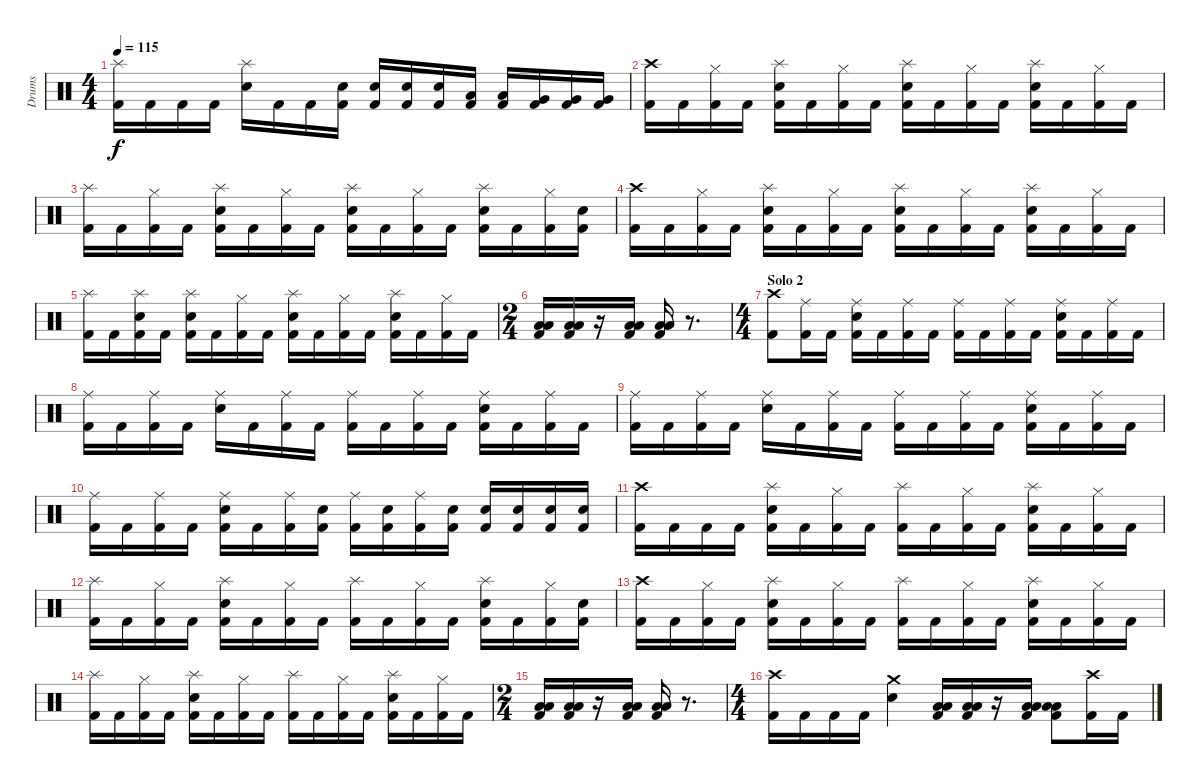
\track ("Drums" "Drums") {instrument percussion}
\staff {score}
\articulation defaults
\ts (4 4)
\tempo 115
\clef neutral
\ks c
("Splash (hit)" "Kick (hit) 2").16{dy f} "Kick (hit) 2".16 "Kick (hit) 2".16 "Kick (hit) 2".16 ("Splash (hit)" "Snare (hit) 2").16 "Kick (hit) 2".16 "Kick (hit) 2".16 ("Snare (hit) 2" "Kick (hit) 2").16 ("Snare (hit) 2" "Kick (hit) 2").16 ("Snare (hit) 2" "Kick (hit) 2").16 ("Snare (hit) 2" "Kick (hit) 2").16 ("Low Tom (hit)" "Kick (hit) 2").16 ("Low Tom (hit)" "Kick (hit) 2").16 ("Very Low Tom (hit)" "Kick (hit) 2").16 ("Very Low Tom (hit)" "Kick (hit) 2").16 ("Very Low Tom (hit)" "Kick (hit) 2").16 |
("Crash high (hit)" "Kick (hit) 2").16 "Kick (hit) 2".16 ("Hi-Hat (closed)" "Kick (hit) 2").16 "Kick (hit) 2".16 ("Splash (hit)" "Snare (hit) 2" "Kick (hit) 2").16 "Kick (hit) 2".16 ("Hi-Hat (closed)" "Kick (hit) 2").16 "Kick (hit) 2".16 ("Splash (hit)" "Snare (hit) 2" "Kick (hit) 2").16 "Kick (hit) 2".16 ("Hi-Hat (closed)" "Kick (hit) 2").16 "Kick (hit) 2".16 ("Splash (hit)" "Snare (hit) 2" "Kick (hit) 2").16 "Kick (hit) 2".16 ("Hi-Hat (closed)" "Kick (hit) 2").16 "Kick (hit) 2".16 |
("Splash (hit)" "Kick (hit) 2").16 "Kick (hit) 2".16 ("Hi-Hat (closed)" "Kick (hit) 2").16 "Kick (hit) 2".16 ("Splash (hit)" "Snare (hit) 2" "Kick (hit) 2").16 "Kick (hit) 2".16 ("Hi-Hat (closed)" "Kick (hit) 2").16 "Kick (hit) 2".16 ("Splash (hit)" "Snare (hit) 2" "Kick (hit) 2").16 "Kick (hit) 2".16 ("Hi-Hat (closed)" "Kick (hit) 2").16 "Kick (hit) 2".16 ("Splash (hit)" "Snare (hit) 2" "Kick (hit) 2").16 "Kick (hit) 2".16 ("Hi-Hat (closed)" "Kick (hit) 2").16 ("Snare (hit) 2" "Kick (hit) 2").16 |
("Crash high (hit)" "Kick (hit) 2").16 "Kick (hit) 2".16 ("Hi-Hat (closed)" "Kick (hit) 2").16 "Kick (hit) 2".16 ("Splash (hit)" "Snare (hit) 2" "Kick (hit) 2").16 "Kick (hit) 2".16 ("Hi-Hat (closed)" "Kick (hit) 2").16 "Kick (hit) 2".16 ("Splash (hit)" "Snare (hit) 2" "Kick (hit) 2").16 "Kick (hit) 2".16 ("Hi-Hat (closed)" "Kick (hit) 2").16 "Kick (hit) 2".16 ("Splash (hit)" "Snare (hit) 2" "Kick (hit) 2").16 "Kick (hit) 2".16 ("Hi-Hat (closed)" "Kick (hit) 2").16 "Kick (hit) 2".16 |
("Splash (hit)" "Kick (hit) 2").16 "Kick (hit) 2".16 ("Splash (hit)" "Snare (hit) 2" "Kick (hit) 2").16 "Kick (hit) 2".16 ("Splash (hit)" "Snare (hit) 2" "Kick (hit) 2").16 "Kick (hit) 2".16 ("Hi-Hat (closed)" "Kick (hit) 2").16 "Kick (hit) 2".16 ("Splash (hit)" "Snare (hit) 2" "Kick (hit) 2").16 "Kick (hit) 2".16 ("Hi-Hat (closed)" "Kick (hit) 2").16 "Kick (hit) 2".16 ("Splash (hit)" "Snare (hit) 2" "Kick (hit) 2").16 "Kick (hit) 2".16 ("Hi-Hat (closed)" "Kick (hit) 2").16 "Kick (hit) 2".16 |
\ts (2 4)
("Low Tom (hit)" "Low Floor Tom (hit)" "Kick (hit) 2").16 ("Low Tom (hit)" "Low Floor Tom (hit)" "Kick (hit) 2").16 r.16 ("Low Tom (hit)" "Low Floor Tom (hit)" "Kick (hit) 2").16 ("Low Tom (hit)" "Low Floor Tom (hit)" "Kick (hit) 2").16 r.8{d} |
\ts (4 4)
\section ("" "Solo 2")
("Crash high (hit)" "Kick (hit) 2").8 ("Ride (middle)" "Kick (hit) 2").16 "Kick (hit) 2".16 ("Ride (middle)" "Snare (hit) 2" "Kick (hit) 2").16 "Kick (hit) 2".16 ("Ride (middle)" "Kick (hit) 2").16 "Kick (hit) 2".16 ("Ride (middle)" "Kick (hit) 2").16 "Kick (hit) 2".16 ("Ride (middle)" "Kick (hit) 2").16 "Kick (hit) 2".16 ("Ride (middle)" "Snare (hit) 2" "Kick (hit) 2").16 "Kick (hit) 2".16 ("Ride (middle)" "Kick (hit) 2").16 "Kick (hit) 2".16 |
("Ride (middle)" "Kick (hit) 2").16 "Kick (hit) 2".16 ("Ride (middle)" "Kick (hit) 2").16 "Kick (hit) 2".16 ("Ride (middle)" "Snare (hit) 2").16 "Kick (hit) 2".16 ("Ride (middle)" "Kick (hit) 2").16 "Kick (hit) 2".16 ("Ride (middle)" "Kick (hit) 2").16 "Kick (hit) 2".16 ("Ride (middle)" "Kick (hit) 2").16 "Kick (hit) 2".16 ("Ride (middle)" "Snare (hit) 2" "Kick (hit) 2").16 "Kick (hit) 2".16 ("Ride (middle)" "Kick (hit) 2").16 "Kick (hit) 2".16 |
("Ride (middle)" "Kick (hit) 2").16 "Kick (hit) 2".16 ("Ride (middle)" "Kick (hit) 2").16 "Kick (hit) 2".16 ("Ride (middle)" "Snare (hit) 2").16 "Kick (hit) 2".16 ("Ride (middle)" "Kick (hit) 2").16 "Kick (hit) 2".16 ("Ride (middle)" "Kick (hit) 2").16 "Kick (hit) 2".16 ("Ride (middle)" "Kick (hit) 2").16 "Kick (hit) 2".16 ("Ride (middle)" "Snare (hit) 2" "Kick (hit) 2").16 "Kick (hit) 2".16 ("Ride (middle)" "Kick (hit) 2").16 "Kick (hit) 2".16 |
("Ride (middle)" "Kick (hit) 2").16 "Kick (hit) 2".16 ("Ride (middle)" "Kick (hit) 2").16 "Kick (hit) 2".16 ("Ride (middle)" "Snare (hit) 2" "Kick (hit) 2").16 "Kick (hit) 2".16 ("Ride (middle)" "Kick (hit) 2").16 ("Snare (hit) 2" "Kick (hit) 2").16 ("Ride (middle)" "Kick (hit) 2").16 ("Snare (hit) 2" "Kick (hit) 2").16 ("Ride (middle)" "Kick (hit) 2").16 ("Snare (hit) 2" "Kick (hit) 2").16 ("Snare (hit) 2" "Kick (hit) 2").16 ("Snare (hit) 2" "Kick (hit) 2").16 ("Snare (hit) 2" "Kick (hit) 2").16 ("Snare (hit) 2" "Kick (hit) 2").16 |
("Crash high (hit)" "Kick (hit) 2").16 "Kick (hit) 2".16 "Kick (hit) 2".16 "Kick (hit) 2".16 ("Splash (hit)" "Snare (hit) 2" "Kick (hit) 2").16 "Kick (hit) 2".16 ("Hi-Hat (closed)" "Kick (hit) 2").16 "Kick (hit) 2".16 ("Splash (hit)" "Kick (hit) 2").16 "Kick (hit) 2".16 ("Hi-Hat (closed)" "Kick (hit) 2").16 "Kick (hit) 2".16 ("Splash (hit)" "Snare (hit) 2" "Kick (hit) 2").16 "Kick (hit) 2".16 ("Hi-Hat (closed)" "Kick (hit) 2").16 "Kick (hit) 2".16 |
("Splash (hit)" "Kick (hit) 2").16 "Kick (hit) 2".16 ("Hi-Hat (closed)" "Kick (hit) 2").16 "Kick (hit) 2".16 ("Splash (hit)" "Snare (hit) 2" "Kick (hit) 2").16 "Kick (hit) 2".16 ("Hi-Hat (closed)" "Kick (hit) 2").16 "Kick (hit) 2".16 ("Splash (hit)" "Kick (hit) 2").16 "Kick (hit) 2".16 ("Hi-Hat (closed)" "Kick (hit) 2").16 "Kick (hit) 2".16 ("Splash (hit)" "Snare (hit) 2" "Kick (hit) 2").16 "Kick (hit) 2".16 ("Hi-Hat (closed)" "Kick (hit) 2").16 ("Snare (hit) 2" "Kick (hit) 2").16 |
("Crash high (hit)" "Kick (hit) 2").16 "Kick (hit) 2".16 ("Hi-Hat (closed)" "Kick (hit) 2").16 "Kick (hit) 2".16 ("Splash (hit)" "Snare (hit) 2" "Kick (hit) 2").16 "Kick (hit) 2".16 ("Hi-Hat (closed)" "Kick (hit) 2").16 "Kick (hit) 2".16 ("Splash (hit)" "Kick (hit) 2").16 "Kick (hit) 2".16 ("Hi-Hat (closed)" "Kick (hit) 2").16 "Kick (hit) 2".16 ("Splash (hit)" "Snare (hit) 2" "Kick (hit) 2").16 "Kick (hit) 2".16 ("Hi-Hat (closed)" "Kick (hit) 2").16 "Kick (hit) 2".16 |
("Splash (hit)" "Kick (hit) 2").16 "Kick (hit) 2".16 ("Hi-Hat (closed)" "Kick (hit) 2").16 "Kick (hit) 2".16 ("Splash (hit)" "Snare (hit) 2" "Kick (hit) 2").16 "Kick (hit) 2".16 ("Hi-Hat (closed)" "Kick (hit) 2").16 "Kick (hit) 2".16 ("Splash (hit)" "Kick (hit) 2").16 "Kick (hit) 2".16 ("Hi-Hat (closed)" "Kick (hit) 2").16 "Kick (hit) 2".16 ("Splash (hit)" "Snare (hit) 2" "Kick (hit) 2").16 "Kick (hit) 2".16 ("Hi-Hat (closed)" "Kick (hit) 2").16 "Kick (hit) 2".16 |
\ts (2 4)
("Low Tom (hit)" "Low Floor Tom (hit)" "Kick (hit) 2").16 ("Low Tom (hit)" "Low Floor Tom (hit)" "Kick (hit) 2").16 r.16 ("Low Tom (hit)" "Low Floor Tom (hit)" "Kick (hit) 2").16 ("Low Tom (hit)" "Low Floor Tom (hit)" "Kick (hit) 2").16 r.8{d} |
\ts (4 4)
("Crash high (hit)" "Kick (hit) 2").16 "Kick (hit) 2".16 "Kick (hit) 2".16 "Kick (hit) 2".16 ("Crash medium (hit)" "Snare (hit) 2").4 ("Low Tom (hit)" "Low Floor Tom (hit)" "Kick (hit) 2").16 ("Low Tom (hit)" "Low Floor Tom (hit)" "Kick (hit) 2").16 r.16 ("Low Tom (hit)" "Low Floor Tom (hit)" "Kick (hit) 2").16 ("Low Tom (hit)" "Low Floor Tom (hit)" "Kick (hit) 2").8 ("Crash high (hit)" "Kick (hit) 2").16 "Kick (hit) 2".16
